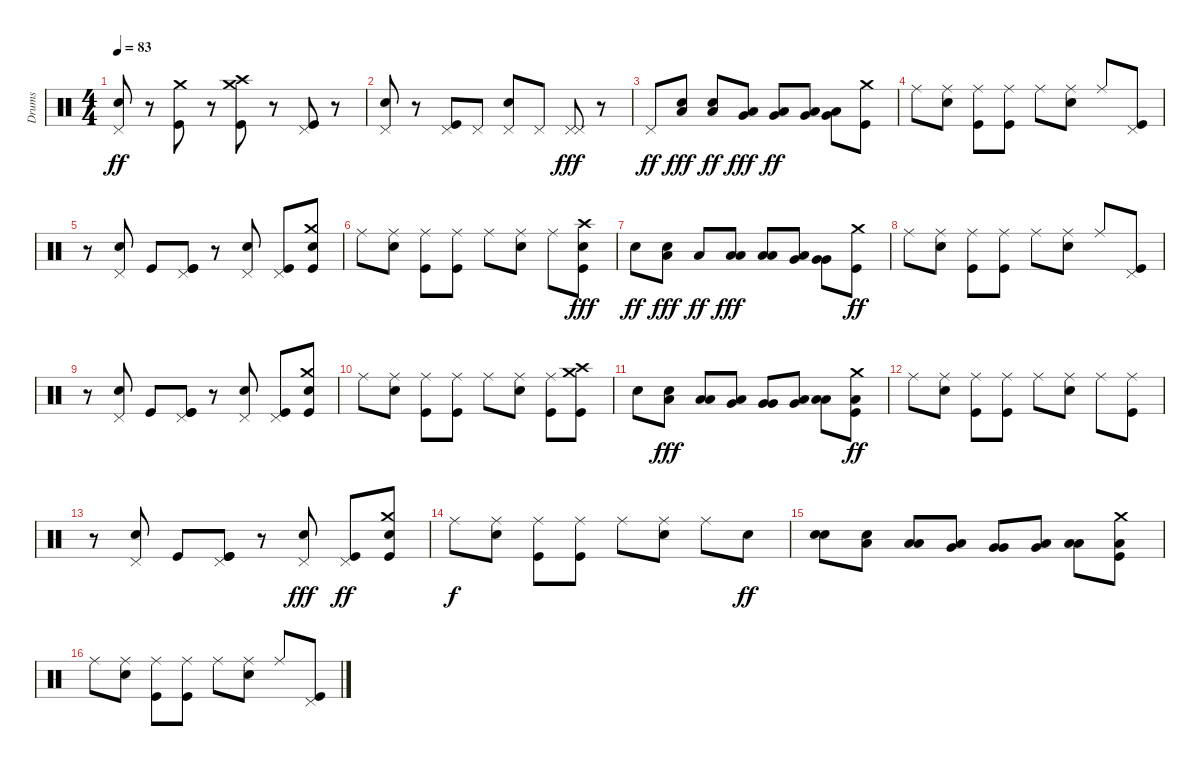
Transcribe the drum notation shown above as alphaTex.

\track ("Drums" "Drums") {instrument percussion}
\staff {score}
\articulation defaults
\ts (4 4)
\tempo 83
\clef neutral
\ks c
("Snare (hit) 2" "Pedal Hi-Hat (hit)").8{dy ff} r.8 ("Crash medium (hit)" "Kick (hit)").8 r.8 ("Crash high (hit)" "Kick (hit)" "Crash medium (hit)").8 r.8 ("Pedal Hi-Hat (hit)" "Kick (hit)").8 r.8 |
("Snare (hit) 2" "Pedal Hi-Hat (hit)").8 r.8 ("Pedal Hi-Hat (hit)" "Kick (hit)").8 "Pedal Hi-Hat (hit)".8 ("Pedal Hi-Hat (hit)" "Snare (hit) 2").8 "Pedal Hi-Hat (hit)".8 ("Pedal Hi-Hat (hit)" "Pedal Hi-Hat (hit)").8{dy fff} r.8 |
"Pedal Hi-Hat (hit)".8{dy ff} ("Low Tom (hit)" "Snare (hit) 2").8{dy fff} ("Snare (hit) 2" "Low Tom (hit)").8{dy ff} ("Low Tom (hit)" "Very Low Tom (hit)").8{dy fff} ("Very Low Tom (hit)" "Low Tom (hit)").8{dy ff} ("Low Floor Tom (hit)" "Very Low Tom (hit)").8 ("Low Floor Tom (hit)" "Very Low Tom (hit)").8 ("Crash medium (hit)" "Kick (hit)").8 |
"Ride (middle)".8 ("Ride (middle)" "Snare (hit) 2").8 ("Ride (middle)" "Kick (hit)").8 ("Kick (hit)" "Ride (middle)").8 "Ride (middle)".8 ("Snare (hit) 2" "Ride (middle)").8 "Ride (middle)".8 ("Kick (hit)" "Pedal Hi-Hat (hit)").8 |
r.8 ("Pedal Hi-Hat (hit)" "Snare (hit) 2").8 "Kick (hit)".8 ("Kick (hit)" "Kick (hit)" "Pedal Hi-Hat (hit)").8 r.8 ("Pedal Hi-Hat (hit)" "Snare (hit) 2").8 ("Kick (hit)" "Pedal Hi-Hat (hit)").8 ("Snare (hit) 2" "Kick (hit)" "Crash medium (hit)").8 |
"Ride (middle)".8 ("Snare (hit) 2" "Ride (middle)").8 ("Kick (hit)" "Ride (middle)").8 ("Kick (hit)" "Ride (middle)").8 "Ride (middle)".8 ("Ride (middle)" "Snare (hit) 2").8 "Ride (middle)".8 ("Snare (hit) 2" "Crash high (hit)" "Kick (hit)").8{dy fff} |
"Snare (hit) 2".8{dy ff} ("Snare (hit) 2" "Low Tom (hit)").8{dy fff} "Low Tom (hit)".8{dy ff} ("Low Tom (hit)" "Low Tom (hit)").8{dy fff} ("Low Tom (hit)" "Low Tom (hit)").8 ("Low Tom (hit)" "Very Low Tom (hit)").8 ("Very Low Tom (hit)" "Very Low Tom (hit)").8 ("Crash medium (hit)" "Kick (hit)").8{dy ff} |
"Ride (middle)".8 ("Ride (middle)" "Snare (hit) 2").8 ("Kick (hit)" "Ride (middle)").8 ("Kick (hit)" "Ride (middle)").8 "Ride (middle)".8 ("Ride (middle)" "Snare (hit) 2").8 "Ride (middle)".8 ("Pedal Hi-Hat (hit)" "Kick (hit)").8 |
r.8 ("Pedal Hi-Hat (hit)" "Snare (hit) 2").8 "Kick (hit)".8 ("Kick (hit)" "Kick (hit)" "Pedal Hi-Hat (hit)").8 r.8 ("Pedal Hi-Hat (hit)" "Snare (hit) 2").8 ("Kick (hit)" "Pedal Hi-Hat (hit)").8 ("Snare (hit) 2" "Kick (hit)" "Crash medium (hit)").8 |
"Ride (middle)".8 ("Snare (hit) 2" "Ride (middle)").8 ("Ride (middle)" "Kick (hit)").8 ("Kick (hit)" "Ride (middle)").8 "Ride (middle)".8 ("Snare (hit) 2" "Ride (middle)").8 ("Ride (middle)" "Kick (hit)").8 ("Crash high (hit)" "Kick (hit)" "Crash medium (hit)").8 |
"Snare (hit) 2".8 ("Snare (hit) 2" "Low Tom (hit)").8{dy fff} ("Low Tom (hit)" "Low Tom (hit)").8 ("Low Tom (hit)" "Very Low Tom (hit)").8 ("Very Low Tom (hit)" "Very Low Tom (hit)").8 ("Very Low Tom (hit)" "Low Floor Tom (hit)").8 ("Low Floor Tom (hit)" "Low Floor Tom (hit)").8 ("Low Floor Tom (hit)" "Kick (hit)" "Crash medium (hit)").8{dy ff} |
"Ride (middle)".8 ("Snare (hit) 2" "Ride (middle)").8 ("Kick (hit)" "Ride (middle)").8 ("Kick (hit)" "Ride (middle)").8 "Ride (middle)".8 ("Snare (hit) 2" "Ride (middle)").8 "Ride (middle)".8 ("Kick (hit)" "Ride (middle)").8 |
r.8 ("Pedal Hi-Hat (hit)" "Snare (hit) 2").8 "Kick (hit)".8 ("Kick (hit)" "Kick (hit)" "Pedal Hi-Hat (hit)").8 r.8 ("Pedal Hi-Hat (hit)" "Snare (hit) 2").8{dy fff} ("Kick (hit)" "Pedal Hi-Hat (hit)").8{dy ff} ("Snare (hit) 2" "Crash medium (hit)" "Kick (hit)").8 |
"Ride (middle)".8{dy f} ("Snare (hit) 2" "Ride (middle)").8 ("Ride (middle)" "Kick (hit)").8 ("Ride (middle)" "Kick (hit)").8 "Ride (middle)".8 ("Snare (hit) 2" "Ride (middle)").8 "Ride (middle)".8 "Snare (hit) 2".8{dy ff} |
("Snare (hit) 2" "Snare (hit) 2").8 ("Snare (hit) 2" "Low Tom (hit)").8 ("Low Tom (hit)" "Low Tom (hit)").8 ("Low Tom (hit)" "Very Low Tom (hit)").8 ("Very Low Tom (hit)" "Very Low Tom (hit)").8 ("Very Low Tom (hit)" "Low Floor Tom (hit)").8 ("Low Floor Tom (hit)" "Low Floor Tom (hit)").8 ("Low Floor Tom (hit)" "Crash medium (hit)" "Kick (hit)").8 |
"Ride (middle)".8 ("Snare (hit) 2" "Ride (middle)").8 ("Kick (hit)" "Ride (middle)").8 ("Ride (middle)" "Kick (hit)").8 "Ride (middle)".8 ("Ride (middle)" "Snare (hit) 2").8 "Ride (middle)".8 ("Kick (hit)" "Pedal Hi-Hat (hit)").8
